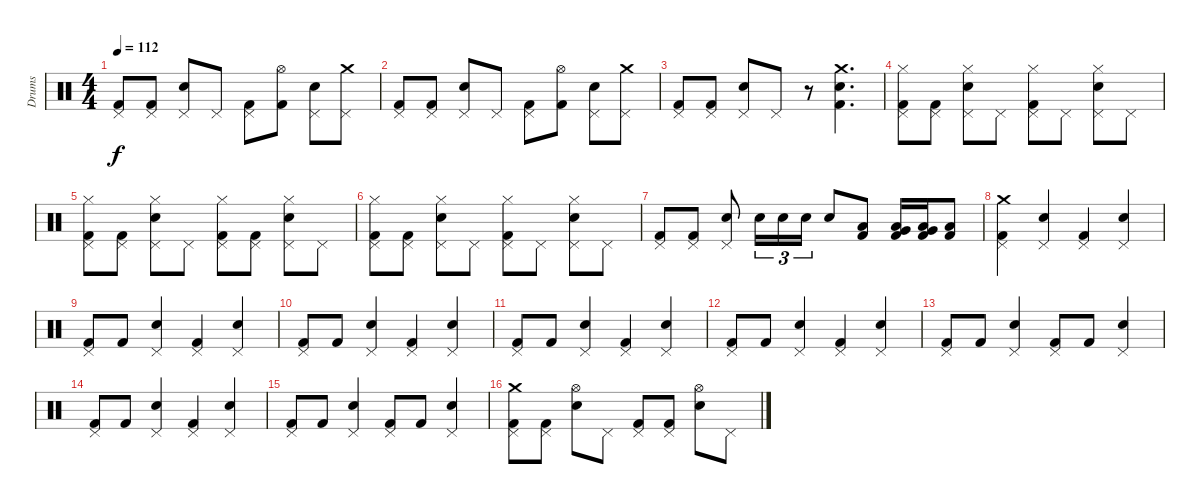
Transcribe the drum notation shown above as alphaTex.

\track ("Drums" "Drums") {instrument percussion}
\staff {score}
\articulation defaults
\ts (4 4)
\tempo 112
\clef neutral
\ks c
("Pedal Hi-Hat (hit)" "Kick (hit) 2").8{dy f} ("Pedal Hi-Hat (hit)" "Kick (hit) 2").8 ("Pedal Hi-Hat (hit)" "Snare (hit) 2").8 "Pedal Hi-Hat (hit)".8 ("Pedal Hi-Hat (hit)" "Kick (hit) 2").8 ("Hi-Hat (open)" "Kick (hit) 2").8 ("Pedal Hi-Hat (hit)" "Snare (hit) 2").8 ("Pedal Hi-Hat (hit)" "Crash medium (hit)").8 |
("Pedal Hi-Hat (hit)" "Kick (hit) 2").8 ("Pedal Hi-Hat (hit)" "Kick (hit) 2").8 ("Pedal Hi-Hat (hit)" "Snare (hit) 2").8 "Pedal Hi-Hat (hit)".8 ("Pedal Hi-Hat (hit)" "Kick (hit) 2").8 ("Hi-Hat (open)" "Kick (hit) 2").8 ("Pedal Hi-Hat (hit)" "Snare (hit) 2").8 ("Pedal Hi-Hat (hit)" "Crash medium (hit)").8 |
("Pedal Hi-Hat (hit)" "Kick (hit) 2").8 ("Pedal Hi-Hat (hit)" "Kick (hit) 2").8 ("Pedal Hi-Hat (hit)" "Snare (hit) 2").8 "Pedal Hi-Hat (hit)".8 r.8 ("Crash medium (hit)" "Snare (hit) 2" "Kick (hit) 2").4{d} |
("Pedal Hi-Hat (hit)" "Hi-Hat (closed)" "Kick (hit) 2").8 ("Pedal Hi-Hat (hit)" "Kick (hit) 2").8 ("Pedal Hi-Hat (hit)" "Hi-Hat (closed)" "Snare (hit) 2").8 "Pedal Hi-Hat (hit)".8 ("Pedal Hi-Hat (hit)" "Hi-Hat (closed)" "Kick (hit) 2").8 "Pedal Hi-Hat (hit)".8 ("Pedal Hi-Hat (hit)" "Hi-Hat (closed)" "Snare (hit) 2").8 "Pedal Hi-Hat (hit)".8 |
("Pedal Hi-Hat (hit)" "Hi-Hat (closed)" "Kick (hit) 2").8 ("Pedal Hi-Hat (hit)" "Kick (hit) 2").8 ("Pedal Hi-Hat (hit)" "Hi-Hat (closed)" "Snare (hit) 2").8 "Pedal Hi-Hat (hit)".8 ("Pedal Hi-Hat (hit)" "Hi-Hat (closed)" "Kick (hit) 2").8 ("Pedal Hi-Hat (hit)" "Kick (hit) 2").8 ("Pedal Hi-Hat (hit)" "Hi-Hat (closed)" "Snare (hit) 2").8 "Pedal Hi-Hat (hit)".8 |
("Pedal Hi-Hat (hit)" "Hi-Hat (closed)" "Kick (hit) 2").8 ("Pedal Hi-Hat (hit)" "Kick (hit) 2").8 ("Pedal Hi-Hat (hit)" "Hi-Hat (closed)" "Snare (hit) 2").8 "Pedal Hi-Hat (hit)".8 ("Pedal Hi-Hat (hit)" "Hi-Hat (closed)" "Kick (hit) 2").8 "Pedal Hi-Hat (hit)".8 ("Pedal Hi-Hat (hit)" "Hi-Hat (closed)" "Snare (hit) 2").8 "Pedal Hi-Hat (hit)".8 |
("Pedal Hi-Hat (hit)" "Kick (hit) 2").8 ("Pedal Hi-Hat (hit)" "Kick (hit) 2").8 ("Pedal Hi-Hat (hit)" "Snare (hit) 2").8 "Snare (hit) 2".16{tu (3 2)} "Snare (hit) 2".16{tu (3 2)} "Snare (hit) 2".16{tu (3 2)} "Snare (hit) 2".8 ("Kick (hit) 2" "Low Tom (hit)").8 ("Kick (hit) 2" "Low Tom (hit)" "Very Low Tom (hit)").16 ("Kick (hit) 2" "Low Tom (hit)" "Very Low Tom (hit)").16 ("Kick (hit) 2" "Low Floor Tom (hit)").8 |
("Pedal Hi-Hat (hit)" "Crash medium (hit)" "Kick (hit) 2").4 ("Pedal Hi-Hat (hit)" "Snare (hit) 2").4 ("Pedal Hi-Hat (hit)" "Kick (hit) 2").4 ("Pedal Hi-Hat (hit)" "Snare (hit) 2").4 |
("Pedal Hi-Hat (hit)" "Kick (hit) 2").8 "Kick (hit) 2".8 ("Pedal Hi-Hat (hit)" "Snare (hit) 2").4 ("Pedal Hi-Hat (hit)" "Kick (hit) 2").4 ("Pedal Hi-Hat (hit)" "Snare (hit) 2").4 |
("Pedal Hi-Hat (hit)" "Kick (hit) 2").8 "Kick (hit) 2".8 ("Pedal Hi-Hat (hit)" "Snare (hit) 2").4 ("Pedal Hi-Hat (hit)" "Kick (hit) 2").4 ("Pedal Hi-Hat (hit)" "Snare (hit) 2").4 |
("Pedal Hi-Hat (hit)" "Kick (hit) 2").8 "Kick (hit) 2".8 ("Pedal Hi-Hat (hit)" "Snare (hit) 2").4 ("Pedal Hi-Hat (hit)" "Kick (hit) 2").4 ("Pedal Hi-Hat (hit)" "Snare (hit) 2").4 |
("Pedal Hi-Hat (hit)" "Kick (hit) 2").8 "Kick (hit) 2".8 ("Pedal Hi-Hat (hit)" "Snare (hit) 2").4 ("Pedal Hi-Hat (hit)" "Kick (hit) 2").4 ("Pedal Hi-Hat (hit)" "Snare (hit) 2").4 |
("Pedal Hi-Hat (hit)" "Kick (hit) 2").8 "Kick (hit) 2".8 ("Pedal Hi-Hat (hit)" "Snare (hit) 2").4 ("Pedal Hi-Hat (hit)" "Kick (hit) 2").8 "Kick (hit) 2".8 ("Pedal Hi-Hat (hit)" "Snare (hit) 2").4 |
("Pedal Hi-Hat (hit)" "Kick (hit) 2").8 "Kick (hit) 2".8 ("Pedal Hi-Hat (hit)" "Snare (hit) 2").4 ("Pedal Hi-Hat (hit)" "Kick (hit) 2").4 ("Pedal Hi-Hat (hit)" "Snare (hit) 2").4 |
("Pedal Hi-Hat (hit)" "Kick (hit) 2").8 "Kick (hit) 2".8 ("Pedal Hi-Hat (hit)" "Snare (hit) 2").4 ("Pedal Hi-Hat (hit)" "Kick (hit) 2").8 "Kick (hit) 2".8 ("Pedal Hi-Hat (hit)" "Snare (hit) 2").4 |
("Pedal Hi-Hat (hit)" "Crash medium (hit)" "Kick (hit) 2").8 ("Pedal Hi-Hat (hit)" "Kick (hit) 2").8 ("Hi-Hat (open)" "Snare (hit) 2").8 "Pedal Hi-Hat (hit)".8 ("Pedal Hi-Hat (hit)" "Kick (hit) 2").8 ("Pedal Hi-Hat (hit)" "Kick (hit) 2").8 ("Hi-Hat (open)" "Snare (hit) 2").8 "Pedal Hi-Hat (hit)".8
